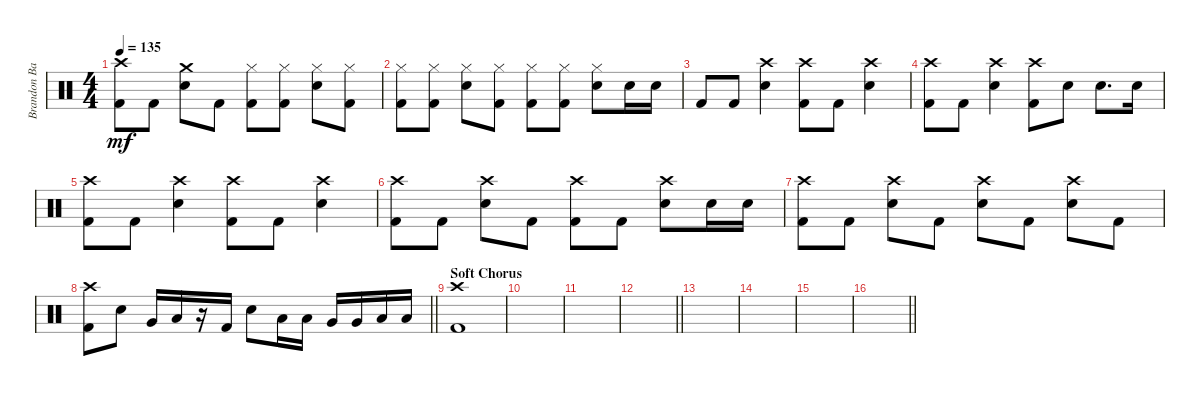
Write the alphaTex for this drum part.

\track ("Brandon Barnes - Drums" "Brandon Ba") {instrument percussion}
\staff {score}
\articulation defaults
\ts (4 4)
\tempo 135
\clef neutral
\ks c
("Crash high (hit)" "Kick (hit) 2").8{dy mf} "Kick (hit) 2".8 ("Snare (hit) 2" "Crash medium (hit)").8 "Kick (hit) 2".8 ("Kick (hit) 2" "Hi-Hat (closed)").8 ("Kick (hit) 2" "Hi-Hat (closed)").8 ("Snare (hit) 2" "Hi-Hat (closed)").8 ("Kick (hit) 2" "Hi-Hat (closed)").8 |
("Kick (hit) 2" "Hi-Hat (closed)").8 ("Kick (hit) 2" "Hi-Hat (closed)").8 ("Snare (hit) 2" "Hi-Hat (closed)").8 ("Kick (hit) 2" "Hi-Hat (closed)").8 ("Kick (hit) 2" "Hi-Hat (closed)").8 ("Kick (hit) 2" "Hi-Hat (closed)").8 ("Snare (hit) 2" "Hi-Hat (closed)").8 "Snare (hit) 2".16 "Snare (hit) 2".16 |
"Kick (hit) 2".8 "Kick (hit) 2".8 ("Snare (hit) 2" "Crash high (hit)").4 ("Kick (hit) 2" "Crash high (hit)").8 "Kick (hit) 2".8 ("Snare (hit) 2" "Crash high (hit)").4 |
("Kick (hit) 2" "Crash high (hit)").8 "Kick (hit) 2".8 ("Snare (hit) 2" "Crash high (hit)").4 ("Kick (hit) 2" "Crash high (hit)").8 "Snare (hit) 2".8 "Snare (hit) 2".8{d} "Snare (hit) 2".16 |
("Kick (hit) 2" "Crash high (hit)").8 "Kick (hit) 2".8 ("Snare (hit) 2" "Crash high (hit)").4 ("Kick (hit) 2" "Crash high (hit)").8 "Kick (hit) 2".8 ("Snare (hit) 2" "Crash high (hit)").4 |
("Kick (hit) 2" "Crash high (hit)").8 "Kick (hit) 2".8 ("Snare (hit) 2" "Crash high (hit)").8 "Kick (hit) 2".8 ("Kick (hit) 2" "Crash high (hit)").8 "Kick (hit) 2".8 ("Snare (hit) 2" "Crash high (hit)").8 "Snare (hit) 2".16 "Snare (hit) 2".16 |
("Kick (hit) 2" "Crash high (hit)").8 "Kick (hit) 2".8 ("Snare (hit) 2" "Crash high (hit)").8 "Kick (hit) 2".8 ("Snare (hit) 2" "Crash high (hit)").8 "Kick (hit) 2".8 ("Snare (hit) 2" "Crash high (hit)").8 "Kick (hit) 2".8 |
\barLineRight lightlight
("Kick (hit) 2" "Crash high (hit)").8 "Snare (hit) 2".8 "Very Low Tom (hit)".16 "Low Floor Tom (hit)".16 r.16 "Kick (hit) 2".16 "Snare (hit) 2".8 "Low Tom (hit)".16 "Low Tom (hit)".16 "Very Low Tom (hit)".16 "Very Low Tom (hit)".16 "Low Floor Tom (hit)".16 "Low Floor Tom (hit)".16 |
\section ("" "Soft Chorus")
("Kick (hit) 2" "Crash high (hit)").1 |
|
|
\barLineRight lightlight
|
|
|
|
\barLineRight lightlight
